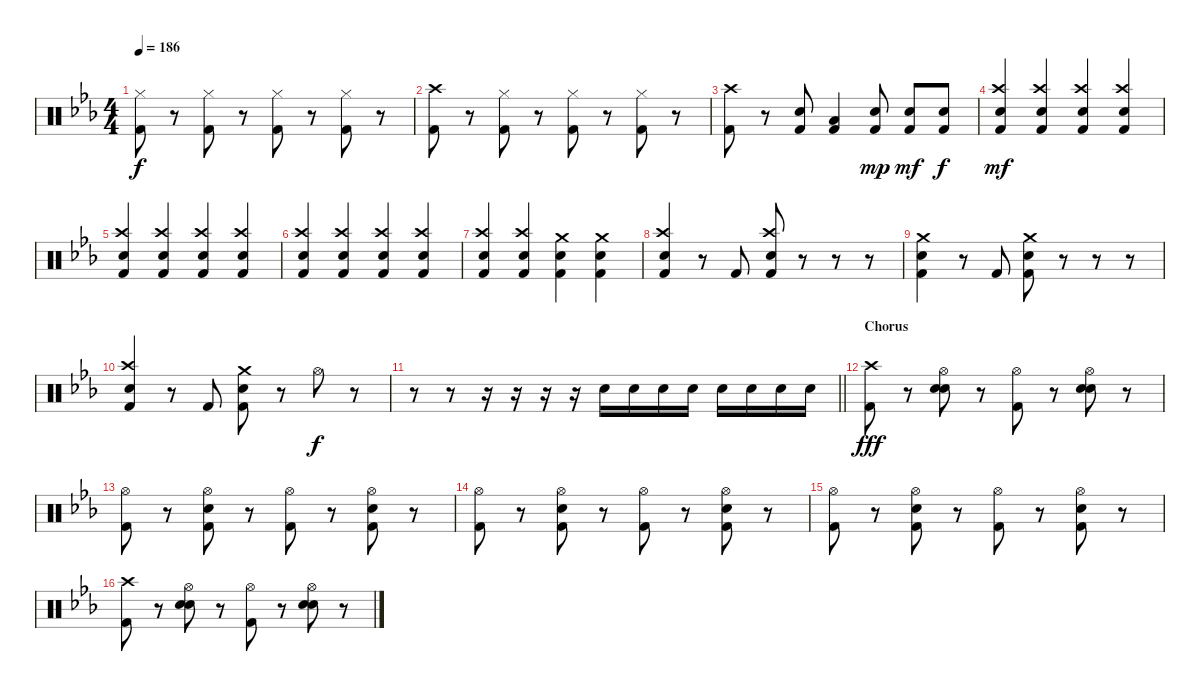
\track "" {instrument percussion}
\staff {score}
\articulation defaults
\ts (4 4)
\tempo 186
\clef neutral
\ks eb
("Hi-Hat (closed)" "Kick (hit) 2").8{dy f} r.8 ("Hi-Hat (closed)" "Kick (hit) 2").8 r.8 ("Hi-Hat (closed)" "Kick (hit) 2").8 r.8 ("Hi-Hat (closed)" "Kick (hit) 2").8 r.8 |
("Crash high (hit)" "Kick (hit) 2").8 r.8 ("Hi-Hat (closed)" "Kick (hit) 2").8 r.8 ("Hi-Hat (closed)" "Kick (hit) 2").8 r.8 ("Hi-Hat (closed)" "Kick (hit) 2").8 r.8 |
("Crash high (hit)" "Kick (hit) 2").8 r.8 ("Snare (hit) 2" "Kick (hit) 2").8 ("Low Tom (hit)" "Kick (hit) 2").4 ("Snare (hit) 2" "Kick (hit) 2").8{dy mp} ("Snare (hit) 2" "Kick (hit) 2").8{dy mf} ("Snare (hit) 2" "Kick (hit) 2").8{dy f} |
("Crash high (hit)" "Snare (hit) 2" "Kick (hit) 2").4{dy mf} ("Crash high (hit)" "Snare (hit) 2" "Kick (hit) 2").4 ("Crash high (hit)" "Snare (hit) 2" "Kick (hit) 2").4 ("Crash high (hit)" "Snare (hit) 2" "Kick (hit) 2").4 |
("Crash high (hit)" "Snare (hit) 2" "Kick (hit) 2").4 ("Crash high (hit)" "Snare (hit) 2" "Kick (hit) 2").4 ("Crash high (hit)" "Snare (hit) 2" "Kick (hit) 2").4 ("Crash high (hit)" "Snare (hit) 2" "Kick (hit) 2").4 |
("Crash high (hit)" "Snare (hit) 2" "Kick (hit) 2").4 ("Crash high (hit)" "Snare (hit) 2" "Kick (hit) 2").4 ("Crash high (hit)" "Snare (hit) 2" "Kick (hit) 2").4 ("Crash high (hit)" "Snare (hit) 2" "Kick (hit) 2").4 |
("Crash high (hit)" "Snare (hit) 2" "Kick (hit) 2").4 ("Crash high (hit)" "Snare (hit) 2" "Kick (hit) 2").4 ("Crash medium (hit)" "Snare (hit) 2" "Kick (hit) 2").4 ("Crash medium (hit)" "Snare (hit) 2" "Kick (hit) 2").4 |
("Crash high (hit)" "Snare (hit) 2" "Kick (hit) 2").4 r.8 "Kick (hit) 2".8 ("Crash high (hit)" "Snare (hit) 2" "Kick (hit) 2").8 r.8 r.8 r.8 |
("Crash medium (hit)" "Snare (hit) 2" "Kick (hit) 2").4 r.8 "Kick (hit) 2".8 ("Crash medium (hit)" "Snare (hit) 2" "Kick (hit) 2").8 r.8 r.8 r.8 |
("Crash high (hit)" "Snare (hit) 2" "Kick (hit) 2").4 r.8 "Kick (hit) 2".8 ("Crash medium (hit)" "Snare (hit) 2" "Kick (hit) 2").8 r.8 "Hi-Hat (open)".8{dy f} r.8 |
\barLineRight lightlight
r.8 r.8 r.16 r.16 r.16 r.16 "Snare (hit) 2".16 "Snare (hit) 2".16 "Snare (hit) 2".16 "Snare (hit) 2".16 "Snare (hit) 2".16 "Snare (hit) 2".16 "Snare (hit) 2".16 "Snare (hit) 2".16 |
\section ("" "Chorus")
("Crash high (hit)" "Kick (hit) 2").8{dy fff} r.8 ("Hi-Hat (open)" "Snare (hit) 2" "Snare (hit) 2").8 r.8 ("Hi-Hat (open)" "Kick (hit) 2").8 r.8 ("Hi-Hat (open)" "Snare (hit) 2" "Snare (hit) 2").8 r.8 |
("Hi-Hat (open)" "Kick (hit) 2").8 r.8 ("Hi-Hat (open)" "Snare (hit) 2" "Kick (hit) 2").8 r.8 ("Hi-Hat (open)" "Kick (hit) 2").8 r.8 ("Hi-Hat (open)" "Snare (hit) 2" "Kick (hit) 2").8 r.8 |
("Hi-Hat (open)" "Kick (hit) 2").8 r.8 ("Hi-Hat (open)" "Snare (hit) 2" "Kick (hit) 2").8 r.8 ("Hi-Hat (open)" "Kick (hit) 2").8 r.8 ("Hi-Hat (open)" "Snare (hit) 2" "Kick (hit) 2").8 r.8 |
("Hi-Hat (open)" "Kick (hit) 2").8 r.8 ("Hi-Hat (open)" "Snare (hit) 2" "Kick (hit) 2").8 r.8 ("Hi-Hat (open)" "Kick (hit) 2").8 r.8 ("Hi-Hat (open)" "Snare (hit) 2" "Kick (hit) 2").8 r.8 |
("Crash high (hit)" "Kick (hit) 2").8 r.8 ("Hi-Hat (open)" "Snare (hit) 2" "Snare (hit) 2").8 r.8 ("Hi-Hat (open)" "Kick (hit) 2").8 r.8 ("Hi-Hat (open)" "Snare (hit) 2" "Snare (hit) 2").8 r.8
